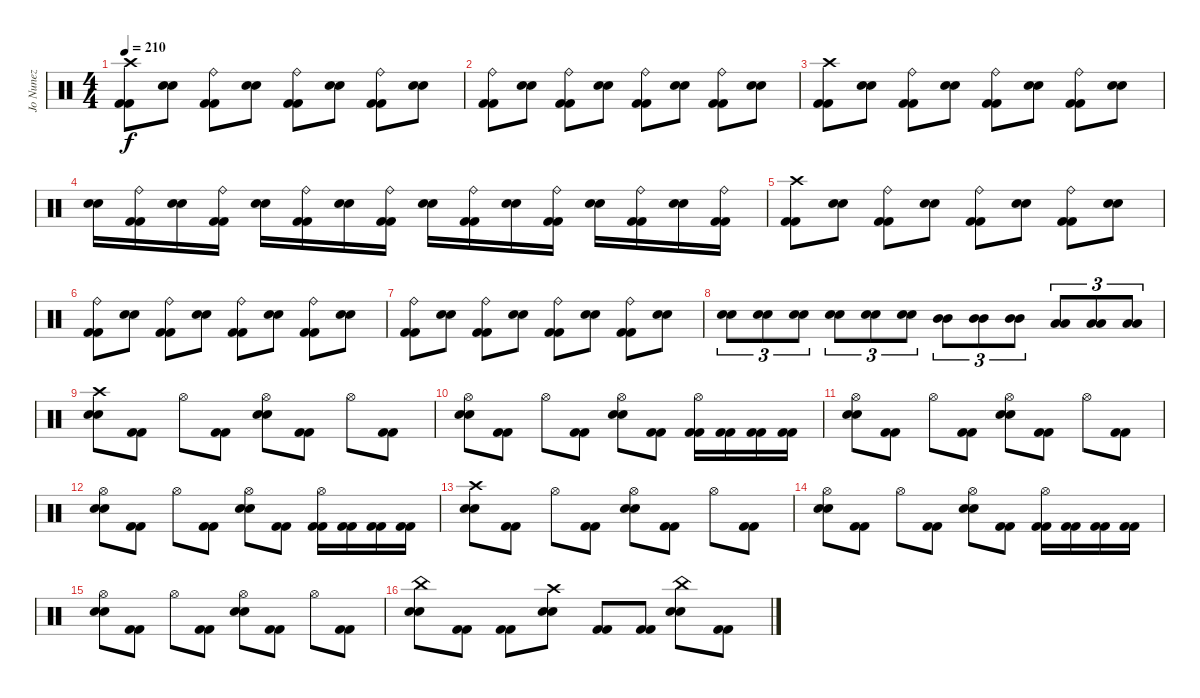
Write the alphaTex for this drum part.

\track ("Jo Nunez" "Jo Nunez") {instrument percussion}
\staff {score}
\articulation defaults
\ts (4 4)
\tempo 210
\clef neutral
\ks c
("Kick (hit) 2" "Kick (hit) 2" "Crash high (hit)").8{dy f} ("Electric Snare (hit)" "Electric Snare (hit)").8 ("Kick (hit) 2" "Kick (hit) 2" "Ride (bell)").8 ("Electric Snare (hit)" "Electric Snare (hit)").8 ("Kick (hit) 2" "Kick (hit) 2" "Ride (bell)").8 ("Electric Snare (hit)" "Electric Snare (hit)").8 ("Kick (hit) 2" "Kick (hit) 2" "Ride (bell)").8 ("Electric Snare (hit)" "Electric Snare (hit)").8 |
("Kick (hit) 2" "Kick (hit) 2" "Ride (bell)").8 ("Electric Snare (hit)" "Electric Snare (hit)").8 ("Kick (hit) 2" "Kick (hit) 2" "Ride (bell)").8 ("Electric Snare (hit)" "Electric Snare (hit)").8 ("Kick (hit) 2" "Kick (hit) 2" "Ride (bell)").8 ("Electric Snare (hit)" "Electric Snare (hit)").8 ("Kick (hit) 2" "Kick (hit) 2" "Ride (bell)").8 ("Electric Snare (hit)" "Electric Snare (hit)").8 |
("Kick (hit) 2" "Kick (hit) 2" "Crash high (hit)").8 ("Electric Snare (hit)" "Electric Snare (hit)").8 ("Kick (hit) 2" "Kick (hit) 2" "Ride (bell)").8 ("Electric Snare (hit)" "Electric Snare (hit)").8 ("Kick (hit) 2" "Kick (hit) 2" "Ride (bell)").8 ("Electric Snare (hit)" "Electric Snare (hit)").8 ("Kick (hit) 2" "Kick (hit) 2" "Ride (bell)").8 ("Electric Snare (hit)" "Electric Snare (hit)").8 |
("Electric Snare (hit)" "Electric Snare (hit)").16 ("Kick (hit) 2" "Kick (hit) 2" "Ride (bell)").16 ("Electric Snare (hit)" "Electric Snare (hit)").16 ("Kick (hit) 2" "Kick (hit) 2" "Ride (bell)").16 ("Electric Snare (hit)" "Electric Snare (hit)").16 ("Kick (hit) 2" "Kick (hit) 2" "Ride (bell)").16 ("Electric Snare (hit)" "Electric Snare (hit)").16 ("Kick (hit) 2" "Kick (hit) 2" "Ride (bell)").16 ("Electric Snare (hit)" "Electric Snare (hit)").16 ("Kick (hit) 2" "Kick (hit) 2" "Ride (bell)").16 ("Electric Snare (hit)" "Electric Snare (hit)").16 ("Kick (hit) 2" "Kick (hit) 2" "Ride (bell)").16 ("Electric Snare (hit)" "Electric Snare (hit)").16 ("Kick (hit) 2" "Kick (hit) 2" "Ride (bell)").16 ("Electric Snare (hit)" "Electric Snare (hit)").16 ("Kick (hit) 2" "Kick (hit) 2" "Ride (bell)").16 |
("Kick (hit) 2" "Kick (hit) 2" "Crash high (hit)").8 ("Electric Snare (hit)" "Electric Snare (hit)").8 ("Kick (hit) 2" "Kick (hit) 2" "Ride (bell)").8 ("Electric Snare (hit)" "Electric Snare (hit)").8 ("Kick (hit) 2" "Kick (hit) 2" "Ride (bell)").8 ("Electric Snare (hit)" "Electric Snare (hit)").8 ("Kick (hit) 2" "Kick (hit) 2" "Ride (bell)").8 ("Electric Snare (hit)" "Electric Snare (hit)").8 |
("Kick (hit) 2" "Kick (hit) 2" "Ride (bell)").8 ("Electric Snare (hit)" "Electric Snare (hit)").8 ("Kick (hit) 2" "Kick (hit) 2" "Ride (bell)").8 ("Electric Snare (hit)" "Electric Snare (hit)").8 ("Kick (hit) 2" "Kick (hit) 2" "Ride (bell)").8 ("Electric Snare (hit)" "Electric Snare (hit)").8 ("Kick (hit) 2" "Kick (hit) 2" "Ride (bell)").8 ("Electric Snare (hit)" "Electric Snare (hit)").8 |
("Kick (hit) 2" "Kick (hit) 2" "Ride (bell)").8 ("Electric Snare (hit)" "Electric Snare (hit)").8 ("Kick (hit) 2" "Kick (hit) 2" "Ride (bell)").8 ("Electric Snare (hit)" "Electric Snare (hit)").8 ("Kick (hit) 2" "Kick (hit) 2" "Ride (bell)").8 ("Electric Snare (hit)" "Electric Snare (hit)").8 ("Kick (hit) 2" "Kick (hit) 2" "Ride (bell)").8 ("Electric Snare (hit)" "Electric Snare (hit)").8 |
("Electric Snare (hit)" "Electric Snare (hit)").8{tu (3 2)} ("Electric Snare (hit)" "Electric Snare (hit)").8{tu (3 2)} ("Electric Snare (hit)" "Electric Snare (hit)").8{tu (3 2)} ("Electric Snare (hit)" "Electric Snare (hit)").8{tu (3 2)} ("Electric Snare (hit)" "Electric Snare (hit)").8{tu (3 2)} ("Electric Snare (hit)" "Electric Snare (hit)").8{tu (3 2)} ("Mid Tom (hit)" "Mid Tom (hit)").8{tu (3 2)} ("Mid Tom (hit)" "Mid Tom (hit)").8{tu (3 2)} ("Mid Tom (hit)" "Mid Tom (hit)").8{tu (3 2)} ("Low Tom (hit)" "Low Tom (hit)").8{tu (3 2)} ("Low Tom (hit)" "Low Tom (hit)").8{tu (3 2)} ("Low Tom (hit)" "Low Tom (hit)").8{tu (3 2)} |
("Electric Snare (hit)" "Electric Snare (hit)" "Crash high (hit)").8 ("Kick (hit) 2" "Kick (hit) 2").8 "Hi-Hat (open)".8 ("Kick (hit) 2" "Kick (hit) 2").8 ("Electric Snare (hit)" "Electric Snare (hit)" "Hi-Hat (open)").8 ("Kick (hit) 2" "Kick (hit) 2").8 "Hi-Hat (open)".8 ("Kick (hit) 2" "Kick (hit) 2").8 |
("Electric Snare (hit)" "Electric Snare (hit)" "Hi-Hat (open)").8 ("Kick (hit) 2" "Kick (hit) 2").8 "Hi-Hat (open)".8 ("Kick (hit) 2" "Kick (hit) 2").8 ("Electric Snare (hit)" "Electric Snare (hit)" "Hi-Hat (open)").8 ("Kick (hit) 2" "Kick (hit) 2").8 ("Kick (hit) 2" "Kick (hit) 2" "Hi-Hat (open)").16 ("Kick (hit) 2" "Kick (hit) 2").16 ("Kick (hit) 2" "Kick (hit) 2").16 ("Kick (hit) 2" "Kick (hit) 2").16 |
("Electric Snare (hit)" "Electric Snare (hit)" "Hi-Hat (open)").8 ("Kick (hit) 2" "Kick (hit) 2").8 "Hi-Hat (open)".8 ("Kick (hit) 2" "Kick (hit) 2").8 ("Electric Snare (hit)" "Electric Snare (hit)" "Hi-Hat (open)").8 ("Kick (hit) 2" "Kick (hit) 2").8 "Hi-Hat (open)".8 ("Kick (hit) 2" "Kick (hit) 2").8 |
("Electric Snare (hit)" "Electric Snare (hit)" "Hi-Hat (open)").8 ("Kick (hit) 2" "Kick (hit) 2").8 "Hi-Hat (open)".8 ("Kick (hit) 2" "Kick (hit) 2").8 ("Electric Snare (hit)" "Electric Snare (hit)" "Hi-Hat (open)").8 ("Kick (hit) 2" "Kick (hit) 2").8 ("Kick (hit) 2" "Kick (hit) 2" "Hi-Hat (open)").16 ("Kick (hit) 2" "Kick (hit) 2").16 ("Kick (hit) 2" "Kick (hit) 2").16 ("Kick (hit) 2" "Kick (hit) 2").16 |
("Electric Snare (hit)" "Electric Snare (hit)" "Crash high (hit)").8 ("Kick (hit) 2" "Kick (hit) 2").8 "Hi-Hat (open)".8 ("Kick (hit) 2" "Kick (hit) 2").8 ("Electric Snare (hit)" "Electric Snare (hit)" "Hi-Hat (open)").8 ("Kick (hit) 2" "Kick (hit) 2").8 "Hi-Hat (open)".8 ("Kick (hit) 2" "Kick (hit) 2").8 |
("Electric Snare (hit)" "Electric Snare (hit)" "Hi-Hat (open)").8 ("Kick (hit) 2" "Kick (hit) 2").8 "Hi-Hat (open)".8 ("Kick (hit) 2" "Kick (hit) 2").8 ("Electric Snare (hit)" "Electric Snare (hit)" "Hi-Hat (open)").8 ("Kick (hit) 2" "Kick (hit) 2").8 ("Kick (hit) 2" "Kick (hit) 2" "Hi-Hat (open)").16 ("Kick (hit) 2" "Kick (hit) 2").16 ("Kick (hit) 2" "Kick (hit) 2").16 ("Kick (hit) 2" "Kick (hit) 2").16 |
("Electric Snare (hit)" "Electric Snare (hit)" "Hi-Hat (open)").8 ("Kick (hit) 2" "Kick (hit) 2").8 "Hi-Hat (open)".8 ("Kick (hit) 2" "Kick (hit) 2").8 ("Electric Snare (hit)" "Electric Snare (hit)" "Hi-Hat (open)").8 ("Kick (hit) 2" "Kick (hit) 2").8 "Hi-Hat (open)".8 ("Kick (hit) 2" "Kick (hit) 2").8 |
("Electric Snare (hit)" "Electric Snare (hit)" "China (hit)").8 ("Kick (hit) 2" "Kick (hit) 2").8 ("Kick (hit) 2" "Kick (hit) 2").8 ("Electric Snare (hit)" "Electric Snare (hit)" "Crash high (hit)").8 ("Kick (hit) 2" "Kick (hit) 2").8 ("Kick (hit) 2" "Kick (hit) 2").8 ("Electric Snare (hit)" "Electric Snare (hit)" "China (hit)").8 ("Kick (hit) 2" "Kick (hit) 2").8
